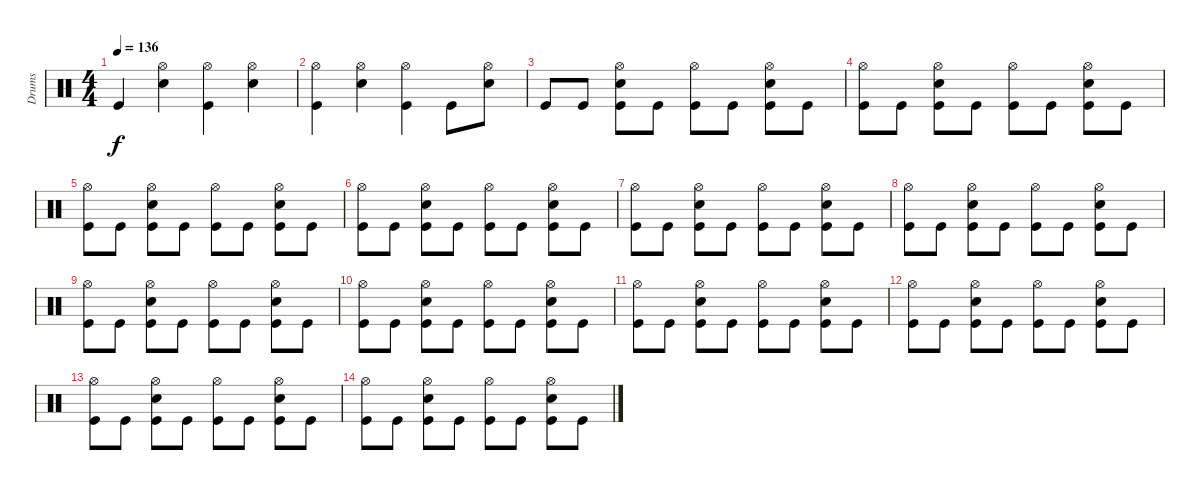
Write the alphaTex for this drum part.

\track ("Drums" "Drums") {instrument percussion}
\staff {score}
\articulation defaults
\ts (4 4)
\tempo 136
\clef neutral
\ks c "Kick (hit)".4{dy f}
("Electric Snare (hit)" "Hi-Hat (open)").4 ("Kick (hit)" "Hi-Hat (open)").4 ("Electric Snare (hit)" "Hi-Hat (open)").4 |
("Kick (hit)" "Hi-Hat (open)").4 ("Electric Snare (hit)" "Hi-Hat (open)").4 ("Kick (hit)" "Hi-Hat (open)").4 "Kick (hit)".8 ("Electric Snare (hit)" "Hi-Hat (open)").8 |
"Kick (hit)".8 "Kick (hit)".8 ("Kick (hit)" "Electric Snare (hit)" "Hi-Hat (open)").8 "Kick (hit)".8 ("Kick (hit)" "Hi-Hat (open)").8 "Kick (hit)".8 ("Kick (hit)" "Electric Snare (hit)" "Hi-Hat (open)").8 "Kick (hit)".8 |
("Kick (hit)" "Hi-Hat (open)").8 "Kick (hit)".8 ("Kick (hit)" "Electric Snare (hit)" "Hi-Hat (open)").8 "Kick (hit)".8 ("Kick (hit)" "Hi-Hat (open)").8 "Kick (hit)".8 ("Kick (hit)" "Electric Snare (hit)" "Hi-Hat (open)").8 "Kick (hit)".8 |
("Kick (hit)" "Hi-Hat (open)").8 "Kick (hit)".8 ("Kick (hit)" "Electric Snare (hit)" "Hi-Hat (open)").8 "Kick (hit)".8 ("Kick (hit)" "Hi-Hat (open)").8 "Kick (hit)".8 ("Kick (hit)" "Electric Snare (hit)" "Hi-Hat (open)").8 "Kick (hit)".8 |
("Kick (hit)" "Hi-Hat (open)").8 "Kick (hit)".8 ("Kick (hit)" "Electric Snare (hit)" "Hi-Hat (open)").8 "Kick (hit)".8 ("Kick (hit)" "Hi-Hat (open)").8 "Kick (hit)".8 ("Kick (hit)" "Electric Snare (hit)" "Hi-Hat (open)").8 "Kick (hit)".8 |
("Kick (hit)" "Hi-Hat (open)").8 "Kick (hit)".8 ("Kick (hit)" "Electric Snare (hit)" "Hi-Hat (open)").8 "Kick (hit)".8 ("Kick (hit)" "Hi-Hat (open)").8 "Kick (hit)".8 ("Kick (hit)" "Electric Snare (hit)" "Hi-Hat (open)").8 "Kick (hit)".8 |
("Kick (hit)" "Hi-Hat (open)").8 "Kick (hit)".8 ("Kick (hit)" "Electric Snare (hit)" "Hi-Hat (open)").8 "Kick (hit)".8 ("Kick (hit)" "Hi-Hat (open)").8 "Kick (hit)".8 ("Kick (hit)" "Electric Snare (hit)" "Hi-Hat (open)").8 "Kick (hit)".8 |
("Kick (hit)" "Hi-Hat (open)").8 "Kick (hit)".8 ("Kick (hit)" "Electric Snare (hit)" "Hi-Hat (open)").8 "Kick (hit)".8 ("Kick (hit)" "Hi-Hat (open)").8 "Kick (hit)".8 ("Kick (hit)" "Electric Snare (hit)" "Hi-Hat (open)").8 "Kick (hit)".8 |
("Kick (hit)" "Hi-Hat (open)").8 "Kick (hit)".8 ("Kick (hit)" "Electric Snare (hit)" "Hi-Hat (open)").8 "Kick (hit)".8 ("Kick (hit)" "Hi-Hat (open)").8 "Kick (hit)".8 ("Kick (hit)" "Electric Snare (hit)" "Hi-Hat (open)").8 "Kick (hit)".8 |
("Kick (hit)" "Hi-Hat (open)").8 "Kick (hit)".8 ("Kick (hit)" "Electric Snare (hit)" "Hi-Hat (open)").8 "Kick (hit)".8 ("Kick (hit)" "Hi-Hat (open)").8 "Kick (hit)".8 ("Kick (hit)" "Electric Snare (hit)" "Hi-Hat (open)").8 "Kick (hit)".8 |
("Kick (hit)" "Hi-Hat (open)").8 "Kick (hit)".8 ("Kick (hit)" "Electric Snare (hit)" "Hi-Hat (open)").8 "Kick (hit)".8 ("Kick (hit)" "Hi-Hat (open)").8 "Kick (hit)".8 ("Kick (hit)" "Electric Snare (hit)" "Hi-Hat (open)").8 "Kick (hit)".8 |
("Kick (hit)" "Hi-Hat (open)").8 "Kick (hit)".8 ("Kick (hit)" "Electric Snare (hit)" "Hi-Hat (open)").8 "Kick (hit)".8 ("Kick (hit)" "Hi-Hat (open)").8 "Kick (hit)".8 ("Kick (hit)" "Electric Snare (hit)" "Hi-Hat (open)").8 "Kick (hit)".8 |
("Kick (hit)" "Hi-Hat (open)").8 "Kick (hit)".8 ("Kick (hit)" "Electric Snare (hit)" "Hi-Hat (open)").8 "Kick (hit)".8 ("Kick (hit)" "Hi-Hat (open)").8 "Kick (hit)".8 ("Kick (hit)" "Electric Snare (hit)" "Hi-Hat (open)").8 "Kick (hit)".8
